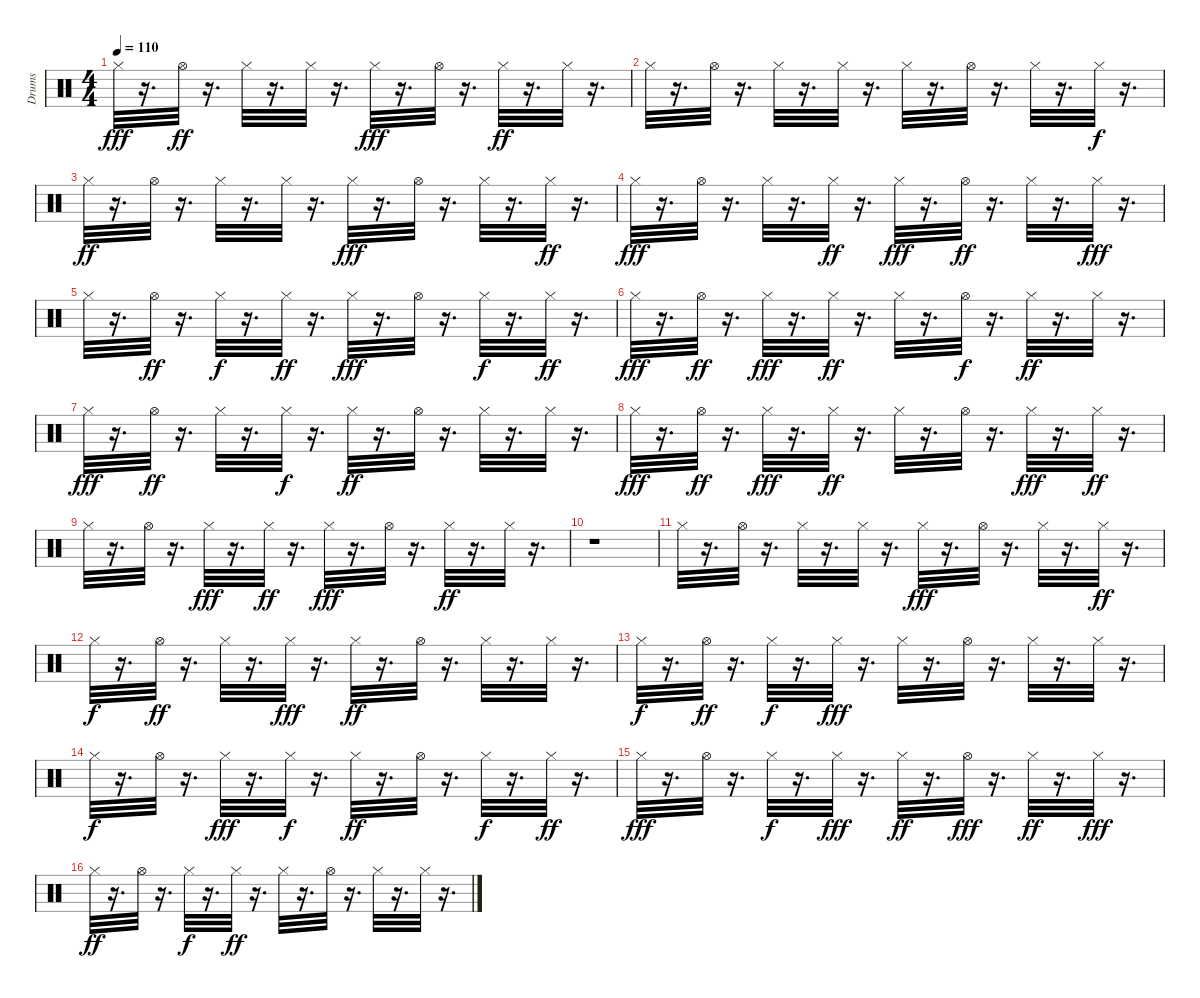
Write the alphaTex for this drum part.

\track ("Drums" "Drums") {instrument percussion}
\staff {score}
\articulation defaults
\ts (4 4)
\tempo 110
\clef neutral
\ks c "Hi-Hat (closed)".32{dy fff}
r.16{d} "Hi-Hat (open)".32{dy ff} r.16{d} "Hi-Hat (closed)".32 r.16{d} "Hi-Hat (closed)".32 r.16{d} "Hi-Hat (closed)".32{dy fff} r.16{d} "Hi-Hat (open)".32 r.16{d} "Hi-Hat (closed)".32{dy ff} r.16{d} "Hi-Hat (closed)".32 r.16{d} |
"Hi-Hat (closed)".32 r.16{d} "Hi-Hat (open)".32 r.16{d} "Hi-Hat (closed)".32 r.16{d} "Hi-Hat (closed)".32 r.16{d} "Hi-Hat (closed)".32 r.16{d} "Hi-Hat (open)".32 r.16{d} "Hi-Hat (closed)".32 r.16{d} "Hi-Hat (closed)".32{dy f} r.16{d} |
"Hi-Hat (closed)".32{dy ff} r.16{d} "Hi-Hat (open)".32 r.16{d} "Hi-Hat (closed)".32 r.16{d} "Hi-Hat (closed)".32 r.16{d} "Hi-Hat (closed)".32{dy fff} r.16{d} "Hi-Hat (open)".32 r.16{d} "Hi-Hat (closed)".32 r.16{d} "Hi-Hat (closed)".32{dy ff} r.16{d} |
"Hi-Hat (closed)".32{dy fff} r.16{d} "Hi-Hat (open)".32 r.16{d} "Hi-Hat (closed)".32 r.16{d} "Hi-Hat (closed)".32{dy ff} r.16{d} "Hi-Hat (closed)".32{dy fff} r.16{d} "Hi-Hat (open)".32{dy ff} r.16{d} "Hi-Hat (closed)".32 r.16{d} "Hi-Hat (closed)".32{dy fff} r.16{d} |
"Hi-Hat (closed)".32 r.16{d} "Hi-Hat (open)".32{dy ff} r.16{d} "Hi-Hat (closed)".32{dy f} r.16{d} "Hi-Hat (closed)".32{dy ff} r.16{d} "Hi-Hat (closed)".32{dy fff} r.16{d} "Hi-Hat (open)".32 r.16{d} "Hi-Hat (closed)".32{dy f} r.16{d} "Hi-Hat (closed)".32{dy ff} r.16{d} |
"Hi-Hat (closed)".32{dy fff} r.16{d} "Hi-Hat (open)".32{dy ff} r.16{d} "Hi-Hat (closed)".32{dy fff} r.16{d} "Hi-Hat (closed)".32{dy ff} r.16{d} "Hi-Hat (closed)".32 r.16{d} "Hi-Hat (open)".32{dy f} r.16{d} "Hi-Hat (closed)".32{dy ff} r.16{d} "Hi-Hat (closed)".32 r.16{d} |
"Hi-Hat (closed)".32{dy fff} r.16{d} "Hi-Hat (open)".32{dy ff} r.16{d} "Hi-Hat (closed)".32 r.16{d} "Hi-Hat (closed)".32{dy f} r.16{d} "Hi-Hat (closed)".32{dy ff} r.16{d} "Hi-Hat (open)".32 r.16{d} "Hi-Hat (closed)".32 r.16{d} "Hi-Hat (closed)".32 r.16{d} |
"Hi-Hat (closed)".32{dy fff} r.16{d} "Hi-Hat (open)".32{dy ff} r.16{d} "Hi-Hat (closed)".32{dy fff} r.16{d} "Hi-Hat (closed)".32{dy ff} r.16{d} "Hi-Hat (closed)".32 r.16{d} "Hi-Hat (open)".32 r.16{d} "Hi-Hat (closed)".32{dy fff} r.16{d} "Hi-Hat (closed)".32{dy ff} r.16{d} |
"Hi-Hat (closed)".32 r.16{d} "Hi-Hat (open)".32 r.16{d} "Hi-Hat (closed)".32{dy fff} r.16{d} "Hi-Hat (closed)".32{dy ff} r.16{d} "Hi-Hat (closed)".32{dy fff} r.16{d} "Hi-Hat (open)".32 r.16{d} "Hi-Hat (closed)".32{dy ff} r.16{d} "Hi-Hat (closed)".32 r.16{d} |
r.1 |
"Hi-Hat (closed)".32 r.16{d} "Hi-Hat (open)".32 r.16{d} "Hi-Hat (closed)".32 r.16{d} "Hi-Hat (closed)".32 r.16{d} "Hi-Hat (closed)".32{dy fff} r.16{d} "Hi-Hat (open)".32 r.16{d} "Hi-Hat (closed)".32 r.16{d} "Hi-Hat (closed)".32{dy ff} r.16{d} |
"Hi-Hat (closed)".32{dy f} r.16{d} "Hi-Hat (open)".32{dy ff} r.16{d} "Hi-Hat (closed)".32 r.16{d} "Hi-Hat (closed)".32{dy fff} r.16{d} "Hi-Hat (closed)".32{dy ff} r.16{d} "Hi-Hat (open)".32 r.16{d} "Hi-Hat (closed)".32 r.16{d} "Hi-Hat (closed)".32 r.16{d} |
"Hi-Hat (closed)".32{dy f} r.16{d} "Hi-Hat (open)".32{dy ff} r.16{d} "Hi-Hat (closed)".32{dy f} r.16{d} "Hi-Hat (closed)".32{dy fff} r.16{d} "Hi-Hat (closed)".32 r.16{d} "Hi-Hat (open)".32 r.16{d} "Hi-Hat (closed)".32 r.16{d} "Hi-Hat (closed)".32 r.16{d} |
"Hi-Hat (closed)".32{dy f} r.16{d} "Hi-Hat (open)".32 r.16{d} "Hi-Hat (closed)".32{dy fff} r.16{d} "Hi-Hat (closed)".32{dy f} r.16{d} "Hi-Hat (closed)".32{dy ff} r.16{d} "Hi-Hat (open)".32 r.16{d} "Hi-Hat (closed)".32{dy f} r.16{d} "Hi-Hat (closed)".32{dy ff} r.16{d} |
"Hi-Hat (closed)".32{dy fff} r.16{d} "Hi-Hat (open)".32 r.16{d} "Hi-Hat (closed)".32{dy f} r.16{d} "Hi-Hat (closed)".32{dy fff} r.16{d} "Hi-Hat (closed)".32{dy ff} r.16{d} "Hi-Hat (open)".32{dy fff} r.16{d} "Hi-Hat (closed)".32{dy ff} r.16{d} "Hi-Hat (closed)".32{dy fff} r.16{d} |
"Hi-Hat (closed)".32{dy ff} r.16{d} "Hi-Hat (open)".32 r.16{d} "Hi-Hat (closed)".32{dy f} r.16{d} "Hi-Hat (closed)".32{dy ff} r.16{d} "Hi-Hat (closed)".32 r.16{d} "Hi-Hat (open)".32 r.16{d} "Hi-Hat (closed)".32 r.16{d} "Hi-Hat (closed)".32 r.16{d}
